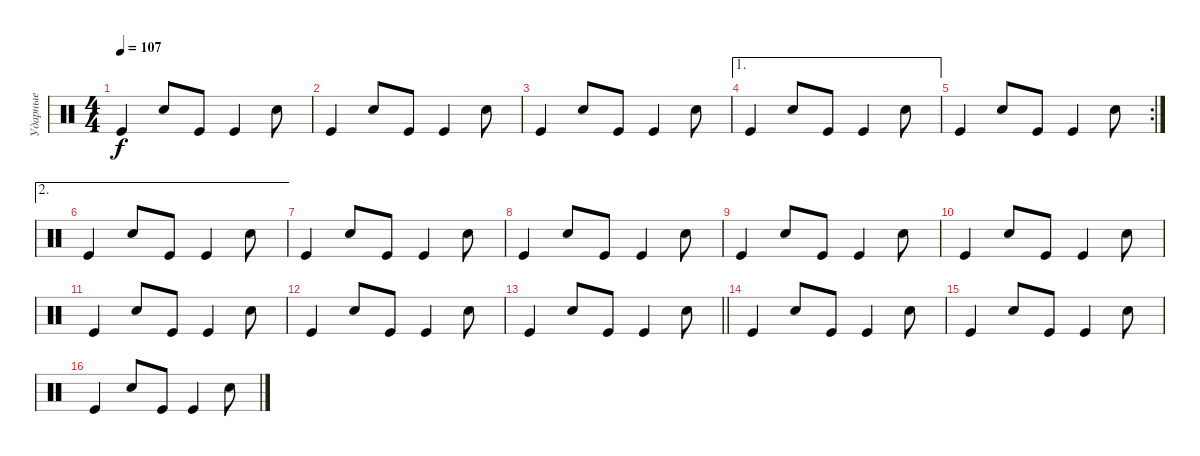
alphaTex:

\track ("Ударные" "Ударные") {instrument percussion}
\staff {score}
\articulation defaults
\ts (4 4)
\tempo 107
\clef neutral
\ks c "Kick (hit)".4{dy f} "Snare (hit) 2".8 "Kick (hit)".8 "Kick (hit)".4 "Snare (hit) 2".8
|
"Kick (hit)".4 "Snare (hit) 2".8 "Kick (hit)".8 "Kick (hit)".4 "Snare (hit) 2".8 |
"Kick (hit)".4 "Snare (hit) 2".8 "Kick (hit)".8 "Kick (hit)".4 "Snare (hit) 2".8 |
\ae 1 "Kick (hit)".4 "Snare (hit) 2".8 "Kick (hit)".8 "Kick (hit)".4 "Snare (hit) 2".8
|
\rc 2 "Kick (hit)".4 "Snare (hit) 2".8 "Kick (hit)".8 "Kick (hit)".4 "Snare (hit) 2".8
|
\ae 2 "Kick (hit)".4 "Snare (hit) 2".8 "Kick (hit)".8 "Kick (hit)".4 "Snare (hit) 2".8
|
"Kick (hit)".4 "Snare (hit) 2".8 "Kick (hit)".8 "Kick (hit)".4 "Snare (hit) 2".8 |
"Kick (hit)".4 "Snare (hit) 2".8 "Kick (hit)".8 "Kick (hit)".4 "Snare (hit) 2".8 |
"Kick (hit)".4 "Snare (hit) 2".8 "Kick (hit)".8 "Kick (hit)".4 "Snare (hit) 2".8 |
"Kick (hit)".4 "Snare (hit) 2".8 "Kick (hit)".8 "Kick (hit)".4 "Snare (hit) 2".8 |
"Kick (hit)".4 "Snare (hit) 2".8 "Kick (hit)".8 "Kick (hit)".4 "Snare (hit) 2".8 |
"Kick (hit)".4 "Snare (hit) 2".8 "Kick (hit)".8 "Kick (hit)".4 "Snare (hit) 2".8 |
\barLineRight lightlight "Kick (hit)".4 "Snare (hit) 2".8 "Kick (hit)".8 "Kick (hit)".4 "Snare (hit) 2".8
|
"Kick (hit)".4 "Snare (hit) 2".8 "Kick (hit)".8 "Kick (hit)".4 "Snare (hit) 2".8 |
"Kick (hit)".4 "Snare (hit) 2".8 "Kick (hit)".8 "Kick (hit)".4 "Snare (hit) 2".8 |
"Kick (hit)".4 "Snare (hit) 2".8 "Kick (hit)".8 "Kick (hit)".4 "Snare (hit) 2".8
